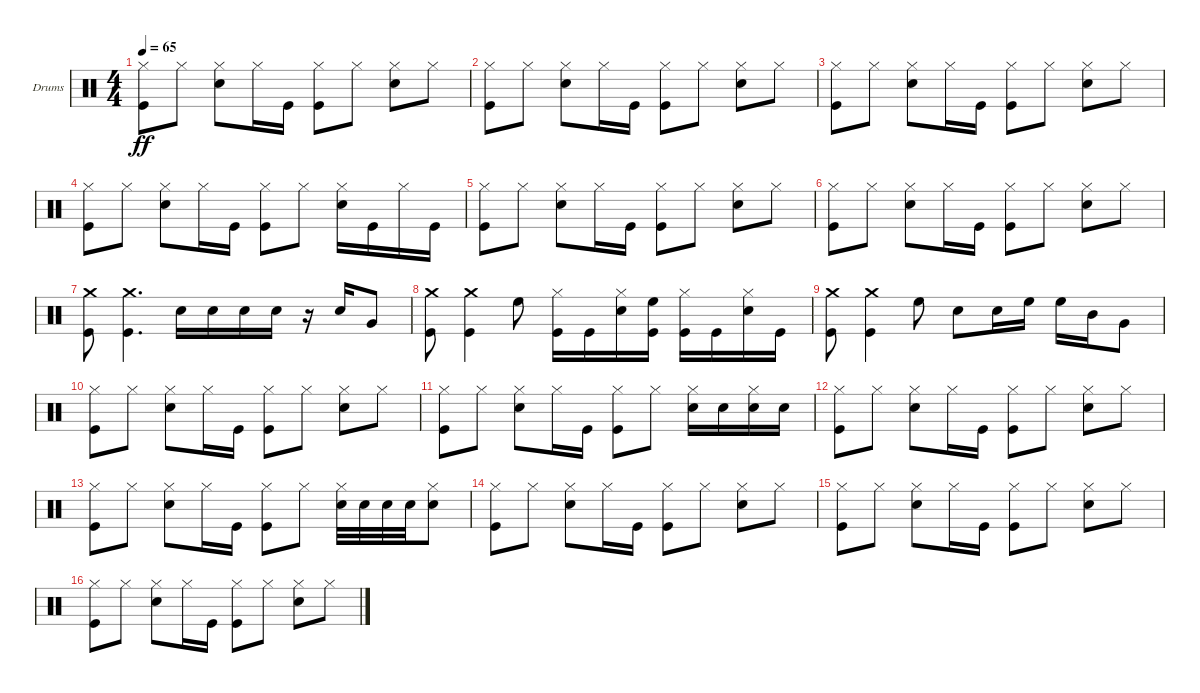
\bracketExtendMode groupsimilarinstruments
\firstSystemTrackNameOrientation horizontal
\otherSystemsTrackNameOrientation horizontal
\track ("Drumkit" "Drums") {instrument percussion}
\staff {score}
\articulation defaults
\ts (4 4)
\tempo 65
\clef neutral
\scale
0.333333
\ks c
("Hi-Hat (closed)" "Kick (hit)").8{dy ff} "Hi-Hat (closed)".8 ("Snare (hit) 2" "Hi-Hat (closed)").8 "Hi-Hat (closed)".16 "Kick (hit)".16 ("Hi-Hat (closed)" "Kick (hit)").8 "Hi-Hat (closed)".8 ("Hi-Hat (closed)" "Snare (hit) 2").8 "Hi-Hat (closed)".8 |
\scale
0.333333 ("Hi-Hat (closed)" "Kick (hit)").8 "Hi-Hat (closed)".8 ("Snare (hit) 2" "Hi-Hat (closed)").8 "Hi-Hat (closed)".16 "Kick (hit)".16 ("Hi-Hat (closed)" "Kick (hit)").8 "Hi-Hat (closed)".8 ("Hi-Hat (closed)" "Snare (hit) 2").8 "Hi-Hat (closed)".8 |
\scale
0.333333 ("Hi-Hat (closed)" "Kick (hit)").8 "Hi-Hat (closed)".8 ("Snare (hit) 2" "Hi-Hat (closed)").8 "Hi-Hat (closed)".16 "Kick (hit)".16 ("Hi-Hat (closed)" "Kick (hit)").8 "Hi-Hat (closed)".8 ("Hi-Hat (closed)" "Snare (hit) 2").8 "Hi-Hat (closed)".8 |
\scale
0.333333 ("Hi-Hat (closed)" "Kick (hit)").8 "Hi-Hat (closed)".8 ("Snare (hit) 2" "Hi-Hat (closed)").8 "Hi-Hat (closed)".16 "Kick (hit)".16 ("Hi-Hat (closed)" "Kick (hit)").8 "Hi-Hat (closed)".8 ("Hi-Hat (closed)" "Snare (hit) 2").16 "Kick (hit)".16 "Hi-Hat (closed)".16 "Kick (hit)".16 |
\scale
0.333333 ("Hi-Hat (closed)" "Kick (hit)").8 "Hi-Hat (closed)".8 ("Snare (hit) 2" "Hi-Hat (closed)").8 "Hi-Hat (closed)".16 "Kick (hit)".16 ("Hi-Hat (closed)" "Kick (hit)").8 "Hi-Hat (closed)".8 ("Hi-Hat (closed)" "Snare (hit) 2").8 "Hi-Hat (closed)".8 |
\scale
0.333333 ("Hi-Hat (closed)" "Kick (hit)").8 "Hi-Hat (closed)".8 ("Snare (hit) 2" "Hi-Hat (closed)").8 "Hi-Hat (closed)".16 "Kick (hit)".16 ("Hi-Hat (closed)" "Kick (hit)").8 "Hi-Hat (closed)".8 ("Hi-Hat (closed)" "Snare (hit) 2").8 "Hi-Hat (closed)".8 |
\scale
0.333333 ("Crash medium (hit)" "Kick (hit)").8 ("Crash medium (hit)" "Kick (hit)").4{d} "Snare (hit) 2".16 "Snare (hit) 2".16 "Snare (hit) 2".16 "Snare (hit) 2".16 r.16 "Snare (hit) 2".16 "Very Low Tom (hit)".8 |
\scale
0.333333 ("Crash medium (hit)" "Kick (hit)").8 ("Kick (hit)" "Crash medium (hit)").4 "High Floor Tom (hit)".8 ("Kick (hit)" "Hi-Hat (closed)").16 "Kick (hit)".16 ("Snare (hit) 2" "Hi-Hat (closed)").16 ("Kick (hit)" "High Floor Tom (hit)").16 ("Kick (hit)" "Hi-Hat (closed)").16 "Kick (hit)".16 ("Snare (hit) 2" "Hi-Hat (closed)").16 "Kick (hit)".16 |
\scale
0.333333 ("Crash medium (hit)" "Kick (hit)").8 ("Crash medium (hit)" "Kick (hit)").4 "High Floor Tom (hit)".8 "Snare (hit) 2".8 "Snare (hit) 2".16 "High Floor Tom (hit)".16 "High Floor Tom (hit)".16 "Mid Tom (hit)".16 "Very Low Tom (hit)".8 |
\scale
0.333333 ("Hi-Hat (closed)" "Kick (hit)").8 "Hi-Hat (closed)".8 ("Snare (hit) 2" "Hi-Hat (closed)").8 "Hi-Hat (closed)".16 "Kick (hit)".16 ("Hi-Hat (closed)" "Kick (hit)").8 "Hi-Hat (closed)".8 ("Hi-Hat (closed)" "Snare (hit) 2").8 "Hi-Hat (closed)".8 |
\scale
0.333333 ("Hi-Hat (closed)" "Kick (hit)").8 "Hi-Hat (closed)".8 ("Snare (hit) 2" "Hi-Hat (closed)").8 "Hi-Hat (closed)".16 "Kick (hit)".16 ("Hi-Hat (closed)" "Kick (hit)").8 "Hi-Hat (closed)".8 ("Snare (hit) 2" "Hi-Hat (closed)").16 "Snare (hit) 2".16 ("Snare (hit) 2" "Hi-Hat (closed)").16 "Snare (hit) 2".16 |
\scale
0.333333 ("Hi-Hat (closed)" "Kick (hit)").8 "Hi-Hat (closed)".8 ("Snare (hit) 2" "Hi-Hat (closed)").8 "Hi-Hat (closed)".16 "Kick (hit)".16 ("Hi-Hat (closed)" "Kick (hit)").8 "Hi-Hat (closed)".8 ("Hi-Hat (closed)" "Snare (hit) 2").8 "Hi-Hat (closed)".8 |
\scale
0.333333 ("Hi-Hat (closed)" "Kick (hit)").8 "Hi-Hat (closed)".8 ("Snare (hit) 2" "Hi-Hat (closed)").8 "Hi-Hat (closed)".16 "Kick (hit)".16 ("Hi-Hat (closed)" "Kick (hit)").8 "Hi-Hat (closed)".8 ("Snare (hit) 2" "Hi-Hat (closed)").32 "Snare (hit) 2".32 "Snare (hit) 2".32 "Snare (hit) 2".32 ("Snare (hit) 2" "Hi-Hat (closed)").8 |
\scale
0.333333 ("Hi-Hat (closed)" "Kick (hit)").8 "Hi-Hat (closed)".8 ("Snare (hit) 2" "Hi-Hat (closed)").8 "Hi-Hat (closed)".16 "Kick (hit)".16 ("Hi-Hat (closed)" "Kick (hit)").8 "Hi-Hat (closed)".8 ("Hi-Hat (closed)" "Snare (hit) 2").8 "Hi-Hat (closed)".8 |
\scale
0.333333 ("Hi-Hat (closed)" "Kick (hit)").8 "Hi-Hat (closed)".8 ("Snare (hit) 2" "Hi-Hat (closed)").8 "Hi-Hat (closed)".16 "Kick (hit)".16 ("Hi-Hat (closed)" "Kick (hit)").8 "Hi-Hat (closed)".8 ("Hi-Hat (closed)" "Snare (hit) 2").8 "Hi-Hat (closed)".8 |
\scale
0.333333 ("Hi-Hat (closed)" "Kick (hit)").8 "Hi-Hat (closed)".8 ("Snare (hit) 2" "Hi-Hat (closed)").8 "Hi-Hat (closed)".16 "Kick (hit)".16 ("Hi-Hat (closed)" "Kick (hit)").8 "Hi-Hat (closed)".8 ("Hi-Hat (closed)" "Snare (hit) 2").8 "Hi-Hat (closed)".8
